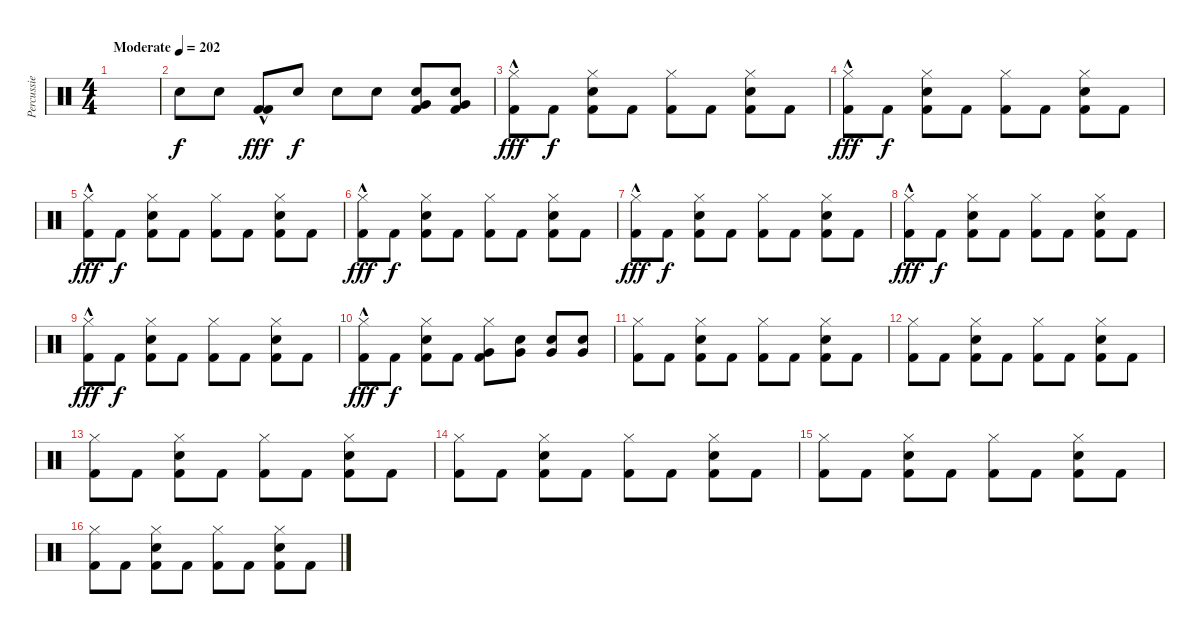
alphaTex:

\track ("Percussie" "Percussie") {instrument percussion}
\staff {score}
\articulation defaults
\ts (4 4)
\tempo (202 "Moderate")
\clef neutral
\ks c
|
"Snare (hit) 2".8 "Snare (hit) 2".8 ("Kick (hit) 2"{hac} "Kick (hit) 2"{hac}).8{dy fff} "Snare (hit) 2".8{dy f} "Snare (hit) 2".8 "Snare (hit) 2".8 ("Snare (hit) 2" "Very Low Tom (hit)" "Kick (hit) 2").8 ("Snare (hit) 2" "Very Low Tom (hit)" "Kick (hit) 2").8 |
("Hi-Hat (closed)" "Kick (hit) 2"{hac}).8{dy fff} "Kick (hit) 2".8{dy f} ("Hi-Hat (closed)" "Snare (hit) 2" "Kick (hit) 2").8 "Kick (hit) 2".8 ("Hi-Hat (closed)" "Kick (hit) 2").8 "Kick (hit) 2".8 ("Hi-Hat (closed)" "Snare (hit) 2" "Kick (hit) 2").8 "Kick (hit) 2".8 |
("Hi-Hat (closed)" "Kick (hit) 2"{hac}).8{dy fff} "Kick (hit) 2".8{dy f} ("Hi-Hat (closed)" "Snare (hit) 2" "Kick (hit) 2").8 "Kick (hit) 2".8 ("Hi-Hat (closed)" "Kick (hit) 2").8 "Kick (hit) 2".8 ("Hi-Hat (closed)" "Snare (hit) 2" "Kick (hit) 2").8 "Kick (hit) 2".8 |
("Hi-Hat (closed)" "Kick (hit) 2"{hac}).8{dy fff} "Kick (hit) 2".8{dy f} ("Hi-Hat (closed)" "Snare (hit) 2" "Kick (hit) 2").8 "Kick (hit) 2".8 ("Hi-Hat (closed)" "Kick (hit) 2").8 "Kick (hit) 2".8 ("Hi-Hat (closed)" "Snare (hit) 2" "Kick (hit) 2").8 "Kick (hit) 2".8 |
("Hi-Hat (closed)" "Kick (hit) 2"{hac}).8{dy fff} "Kick (hit) 2".8{dy f} ("Hi-Hat (closed)" "Snare (hit) 2" "Kick (hit) 2").8 "Kick (hit) 2".8 ("Hi-Hat (closed)" "Kick (hit) 2").8 "Kick (hit) 2".8 ("Hi-Hat (closed)" "Snare (hit) 2" "Kick (hit) 2").8 "Kick (hit) 2".8 |
("Hi-Hat (closed)" "Kick (hit) 2"{hac}).8{dy fff} "Kick (hit) 2".8{dy f} ("Hi-Hat (closed)" "Snare (hit) 2" "Kick (hit) 2").8 "Kick (hit) 2".8 ("Hi-Hat (closed)" "Kick (hit) 2").8 "Kick (hit) 2".8 ("Hi-Hat (closed)" "Snare (hit) 2" "Kick (hit) 2").8 "Kick (hit) 2".8 |
("Hi-Hat (closed)" "Kick (hit) 2"{hac}).8{dy fff} "Kick (hit) 2".8{dy f} ("Hi-Hat (closed)" "Snare (hit) 2" "Kick (hit) 2").8 "Kick (hit) 2".8 ("Hi-Hat (closed)" "Kick (hit) 2").8 "Kick (hit) 2".8 ("Hi-Hat (closed)" "Snare (hit) 2" "Kick (hit) 2").8 "Kick (hit) 2".8 |
("Hi-Hat (closed)" "Kick (hit) 2"{hac}).8{dy fff} "Kick (hit) 2".8{dy f} ("Hi-Hat (closed)" "Snare (hit) 2" "Kick (hit) 2").8 "Kick (hit) 2".8 ("Hi-Hat (closed)" "Kick (hit) 2").8 "Kick (hit) 2".8 ("Hi-Hat (closed)" "Snare (hit) 2" "Kick (hit) 2").8 "Kick (hit) 2".8 |
("Hi-Hat (closed)" "Kick (hit) 2"{hac}).8{dy fff} "Kick (hit) 2".8{dy f} ("Hi-Hat (closed)" "Snare (hit) 2" "Kick (hit) 2").8 "Kick (hit) 2".8 ("Hi-Hat (closed)" "Very Low Tom (hit)" "Kick (hit) 2").8 ("Very Low Tom (hit)" "Snare (hit) 2").8 ("Very Low Tom (hit)" "Snare (hit) 2").8 ("Very Low Tom (hit)" "Snare (hit) 2").8 |
("Hi-Hat (closed)" "Kick (hit) 2").8 "Kick (hit) 2".8 ("Hi-Hat (closed)" "Snare (hit) 2" "Kick (hit) 2").8 "Kick (hit) 2".8 ("Hi-Hat (closed)" "Kick (hit) 2").8 "Kick (hit) 2".8 ("Hi-Hat (closed)" "Snare (hit) 2" "Kick (hit) 2").8 "Kick (hit) 2".8 |
("Hi-Hat (closed)" "Kick (hit) 2").8 "Kick (hit) 2".8 ("Hi-Hat (closed)" "Snare (hit) 2" "Kick (hit) 2").8 "Kick (hit) 2".8 ("Hi-Hat (closed)" "Kick (hit) 2").8 "Kick (hit) 2".8 ("Hi-Hat (closed)" "Snare (hit) 2" "Kick (hit) 2").8 "Kick (hit) 2".8 |
("Hi-Hat (closed)" "Kick (hit) 2").8 "Kick (hit) 2".8 ("Hi-Hat (closed)" "Snare (hit) 2" "Kick (hit) 2").8 "Kick (hit) 2".8 ("Hi-Hat (closed)" "Kick (hit) 2").8 "Kick (hit) 2".8 ("Hi-Hat (closed)" "Snare (hit) 2" "Kick (hit) 2").8 "Kick (hit) 2".8 |
("Hi-Hat (closed)" "Kick (hit) 2").8 "Kick (hit) 2".8 ("Hi-Hat (closed)" "Snare (hit) 2" "Kick (hit) 2").8 "Kick (hit) 2".8 ("Hi-Hat (closed)" "Kick (hit) 2").8 "Kick (hit) 2".8 ("Hi-Hat (closed)" "Snare (hit) 2" "Kick (hit) 2").8 "Kick (hit) 2".8 |
("Hi-Hat (closed)" "Kick (hit) 2").8 "Kick (hit) 2".8 ("Hi-Hat (closed)" "Snare (hit) 2" "Kick (hit) 2").8 "Kick (hit) 2".8 ("Hi-Hat (closed)" "Kick (hit) 2").8 "Kick (hit) 2".8 ("Hi-Hat (closed)" "Snare (hit) 2" "Kick (hit) 2").8 "Kick (hit) 2".8 |
("Hi-Hat (closed)" "Kick (hit) 2").8 "Kick (hit) 2".8 ("Hi-Hat (closed)" "Snare (hit) 2" "Kick (hit) 2").8 "Kick (hit) 2".8 ("Hi-Hat (closed)" "Kick (hit) 2").8 "Kick (hit) 2".8 ("Hi-Hat (closed)" "Snare (hit) 2" "Kick (hit) 2").8 "Kick (hit) 2".8
